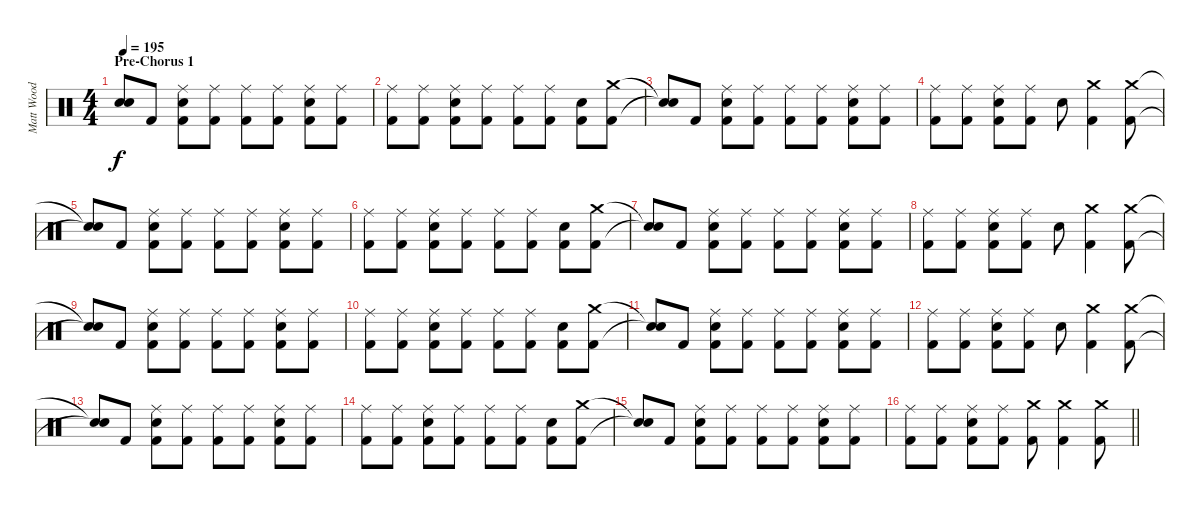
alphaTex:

\track ("Matt Wood" "Matt Wood") {instrument percussion}
\staff {score}
\articulation defaults
\ts (4 4)
\section ("" "Pre-Chorus 1")
\tempo 195
\clef neutral
\ks c
("Snare (hit)"{t} "Snare (hit)"{t}).8{dy f} "Kick (hit) 2".8 ("Ride (middle)" "Snare (hit) 2" "Kick (hit) 2").8 ("Ride (middle)" "Kick (hit) 2").8 ("Ride (middle)" "Kick (hit) 2").8 ("Ride (middle)" "Kick (hit) 2").8 ("Ride (middle)" "Snare (hit) 2" "Kick (hit) 2").8 ("Ride (middle)" "Kick (hit) 2").8 |
("Ride (middle)" "Kick (hit) 2").8 ("Ride (middle)" "Kick (hit) 2").8 ("Ride (middle)" "Snare (hit) 2" "Kick (hit) 2").8 ("Ride (middle)" "Kick (hit) 2").8 ("Ride (middle)" "Kick (hit) 2").8 ("Ride (middle)" "Kick (hit) 2").8 ("Snare (hit) 2" "Kick (hit) 2").8 ("Crash medium (hit)" "Kick (hit) 2").8 |
("Snare (hit)"{t} "Snare (hit)"{t}).8 "Kick (hit) 2".8 ("Ride (middle)" "Snare (hit) 2" "Kick (hit) 2").8 ("Ride (middle)" "Kick (hit) 2").8 ("Ride (middle)" "Kick (hit) 2").8 ("Ride (middle)" "Kick (hit) 2").8 ("Ride (middle)" "Snare (hit) 2" "Kick (hit) 2").8 ("Ride (middle)" "Kick (hit) 2").8 |
("Ride (middle)" "Kick (hit) 2").8 ("Ride (middle)" "Kick (hit) 2").8 ("Ride (middle)" "Snare (hit) 2" "Kick (hit) 2").8 ("Ride (middle)" "Kick (hit) 2").8 "Snare (hit) 2".8 ("Crash medium (hit)" "Kick (hit) 2").4 ("Crash medium (hit)" "Kick (hit) 2").8 |
("Snare (hit)"{t} "Snare (hit)"{t}).8 "Kick (hit) 2".8 ("Ride (middle)" "Snare (hit) 2" "Kick (hit) 2").8 ("Ride (middle)" "Kick (hit) 2").8 ("Ride (middle)" "Kick (hit) 2").8 ("Ride (middle)" "Kick (hit) 2").8 ("Ride (middle)" "Snare (hit) 2" "Kick (hit) 2").8 ("Ride (middle)" "Kick (hit) 2").8 |
("Ride (middle)" "Kick (hit) 2").8 ("Ride (middle)" "Kick (hit) 2").8 ("Ride (middle)" "Snare (hit) 2" "Kick (hit) 2").8 ("Ride (middle)" "Kick (hit) 2").8 ("Ride (middle)" "Kick (hit) 2").8 ("Ride (middle)" "Kick (hit) 2").8 ("Snare (hit) 2" "Kick (hit) 2").8 ("Crash medium (hit)" "Kick (hit) 2").8 |
("Snare (hit)"{t} "Snare (hit)"{t}).8 "Kick (hit) 2".8 ("Ride (middle)" "Snare (hit) 2" "Kick (hit) 2").8 ("Ride (middle)" "Kick (hit) 2").8 ("Ride (middle)" "Kick (hit) 2").8 ("Ride (middle)" "Kick (hit) 2").8 ("Ride (middle)" "Snare (hit) 2" "Kick (hit) 2").8 ("Ride (middle)" "Kick (hit) 2").8 |
("Ride (middle)" "Kick (hit) 2").8 ("Ride (middle)" "Kick (hit) 2").8 ("Ride (middle)" "Snare (hit) 2" "Kick (hit) 2").8 ("Ride (middle)" "Kick (hit) 2").8 "Snare (hit) 2".8 ("Crash medium (hit)" "Kick (hit) 2").4 ("Crash medium (hit)" "Kick (hit) 2").8 |
("Snare (hit)"{t} "Snare (hit)"{t}).8 "Kick (hit) 2".8 ("Ride (middle)" "Snare (hit) 2" "Kick (hit) 2").8 ("Ride (middle)" "Kick (hit) 2").8 ("Ride (middle)" "Kick (hit) 2").8 ("Ride (middle)" "Kick (hit) 2").8 ("Ride (middle)" "Snare (hit) 2" "Kick (hit) 2").8 ("Ride (middle)" "Kick (hit) 2").8 |
("Ride (middle)" "Kick (hit) 2").8 ("Ride (middle)" "Kick (hit) 2").8 ("Ride (middle)" "Snare (hit) 2" "Kick (hit) 2").8 ("Ride (middle)" "Kick (hit) 2").8 ("Ride (middle)" "Kick (hit) 2").8 ("Ride (middle)" "Kick (hit) 2").8 ("Snare (hit) 2" "Kick (hit) 2").8 ("Crash medium (hit)" "Kick (hit) 2").8 |
("Snare (hit)"{t} "Snare (hit)"{t}).8 "Kick (hit) 2".8 ("Ride (middle)" "Snare (hit) 2" "Kick (hit) 2").8 ("Ride (middle)" "Kick (hit) 2").8 ("Ride (middle)" "Kick (hit) 2").8 ("Ride (middle)" "Kick (hit) 2").8 ("Ride (middle)" "Snare (hit) 2" "Kick (hit) 2").8 ("Ride (middle)" "Kick (hit) 2").8 |
("Ride (middle)" "Kick (hit) 2").8 ("Ride (middle)" "Kick (hit) 2").8 ("Ride (middle)" "Snare (hit) 2" "Kick (hit) 2").8 ("Ride (middle)" "Kick (hit) 2").8 "Snare (hit) 2".8 ("Crash medium (hit)" "Kick (hit) 2").4 ("Crash medium (hit)" "Kick (hit) 2").8 |
("Snare (hit)"{t} "Snare (hit)"{t}).8 "Kick (hit) 2".8 ("Ride (middle)" "Snare (hit) 2" "Kick (hit) 2").8 ("Ride (middle)" "Kick (hit) 2").8 ("Ride (middle)" "Kick (hit) 2").8 ("Ride (middle)" "Kick (hit) 2").8 ("Ride (middle)" "Snare (hit) 2" "Kick (hit) 2").8 ("Ride (middle)" "Kick (hit) 2").8 |
("Ride (middle)" "Kick (hit) 2").8 ("Ride (middle)" "Kick (hit) 2").8 ("Ride (middle)" "Snare (hit) 2" "Kick (hit) 2").8 ("Ride (middle)" "Kick (hit) 2").8 ("Ride (middle)" "Kick (hit) 2").8 ("Ride (middle)" "Kick (hit) 2").8 ("Snare (hit) 2" "Kick (hit) 2").8 ("Crash medium (hit)" "Kick (hit) 2").8 |
("Snare (hit)"{t} "Snare (hit)"{t}).8 "Kick (hit) 2".8 ("Ride (middle)" "Snare (hit) 2" "Kick (hit) 2").8 ("Ride (middle)" "Kick (hit) 2").8 ("Ride (middle)" "Kick (hit) 2").8 ("Ride (middle)" "Kick (hit) 2").8 ("Ride (middle)" "Snare (hit) 2" "Kick (hit) 2").8 ("Ride (middle)" "Kick (hit) 2").8 |
\barLineRight lightlight
("Ride (middle)" "Kick (hit) 2").8 ("Ride (middle)" "Kick (hit) 2").8 ("Ride (middle)" "Snare (hit) 2" "Kick (hit) 2").8 ("Ride (middle)" "Kick (hit) 2").8 ("Crash medium (hit)" "Kick (hit) 2").8 ("Crash medium (hit)" "Kick (hit) 2").4 ("Crash medium (hit)" "Kick (hit) 2").8
